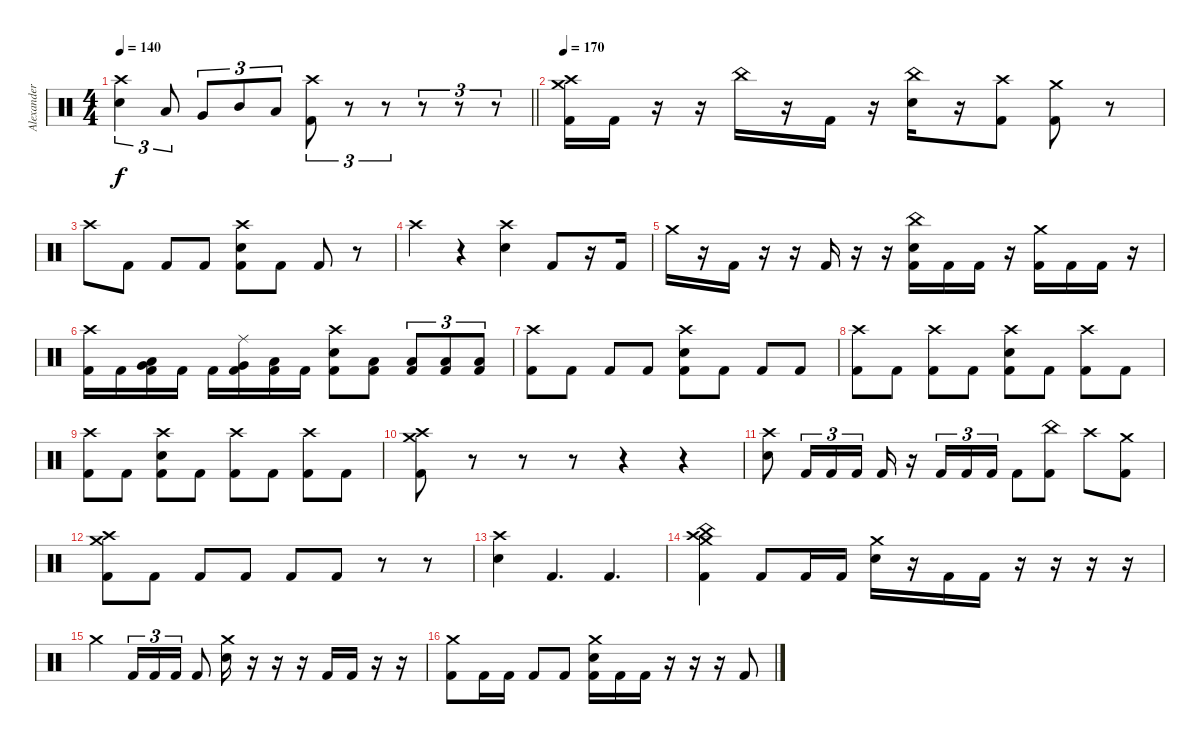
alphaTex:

\track ("Alexander Yazikov" "Alexander ") {instrument percussion}
\staff {score}
\articulation defaults
\ts (4 4)
\tempo 140
\clef neutral
\barLineRight lightlight
\ks c
("Crash high (hit)" "Electric Snare (hit)").4{tu (3 2) dy f} "Low Tom (hit)".8{tu (3 2)} "Very Low Tom (hit)".8{tu (3 2)} "Mid Tom (hit)".8{tu (3 2)} "Low Tom (hit)".8{tu (3 2)} ("Crash high (hit)" "Kick (hit) 2").8{tu (3 2)} r.8{tu (3 2)} r.8{tu (3 2)} r.8{tu (3 2)} r.8{tu (3 2)} r.8{tu (3 2)} |
\tempo 170
("Crash medium (hit)" "Crash high (hit)" "Kick (hit) 2").16 "Kick (hit) 2".16 r.16 r.16 "China (hit)".16 r.16 "Kick (hit) 2".16 r.16 ("China (hit)" "Electric Snare (hit)").16 r.16 ("Crash high (hit)" "Kick (hit) 2").8 ("Crash medium (hit)" "Kick (hit) 2").8 r.8 |
"Crash high (hit)".8 "Kick (hit) 2".8 "Kick (hit) 2".8 "Kick (hit) 2".8 ("Crash high (hit)" "Electric Snare (hit)" "Kick (hit) 2").8 "Kick (hit) 2".8 "Kick (hit) 2".8 r.8 |
"Crash high (hit)".4 r.4 ("Crash high (hit)" "Electric Snare (hit)").4 "Kick (hit) 2".8 r.16 "Kick (hit) 2".16 |
"Crash medium (hit)".16 r.16 "Kick (hit) 2".16 r.16 r.16 "Kick (hit) 2".16 r.16 r.16 ("China (hit)" "Electric Snare (hit)" "Kick (hit) 2").16 "Kick (hit) 2".16 "Kick (hit) 2".16 r.16 ("Crash medium (hit)" "Kick (hit) 2").16 "Kick (hit) 2".16 "Kick (hit) 2".16 r.16 |
("Crash high (hit)" "Kick (hit) 2").16 "Kick (hit) 2".16 ("Low Tom (hit)" "Very Low Tom (hit)" "Kick (hit) 2").16 "Kick (hit) 2".16 "Kick (hit) 2".16 ("Very Low Tom (hit)" "Ride (middle)" "Kick (hit) 2").16 ("Low Tom (hit)" "Kick (hit) 2").16 "Kick (hit) 2".16 ("Crash high (hit)" "Electric Snare (hit)" "Kick (hit) 2").8 ("Low Tom (hit)" "Kick (hit) 2").8 ("Low Floor Tom (hit)" "Kick (hit) 2").8{tu (3 2)} ("Low Floor Tom (hit)" "Kick (hit) 2").8{tu (3 2)} ("Low Floor Tom (hit)" "Kick (hit) 2").8{tu (3 2)} |
("Crash high (hit)" "Kick (hit) 2").8 "Kick (hit) 2".8 "Kick (hit) 2".8 "Kick (hit) 2".8 ("Crash high (hit)" "Electric Snare (hit)" "Kick (hit) 2").8 "Kick (hit) 2".8 "Kick (hit) 2".8 "Kick (hit) 2".8 |
("Crash high (hit)" "Kick (hit) 2").8 "Kick (hit) 2".8 ("Crash high (hit)" "Kick (hit) 2").8 "Kick (hit) 2".8 ("Crash high (hit)" "Electric Snare (hit)" "Kick (hit) 2").8 "Kick (hit) 2".8 ("Crash high (hit)" "Kick (hit) 2").8 "Kick (hit) 2".8 |
("Crash high (hit)" "Kick (hit) 2").8 "Kick (hit) 2".8 ("Crash high (hit)" "Electric Snare (hit)" "Kick (hit) 2").8 "Kick (hit) 2".8 ("Crash high (hit)" "Kick (hit) 2").8 "Kick (hit) 2".8 ("Crash high (hit)" "Kick (hit) 2").8 "Kick (hit) 2".8 |
("Crash high (hit)" "Crash medium (hit)" "Kick (hit) 2").8 r.8 r.8 r.8 r.4 r.4 |
("Crash high (hit)" "Electric Snare (hit)").8 "Kick (hit) 2".16{tu (3 2)} "Kick (hit) 2".16{tu (3 2)} "Kick (hit) 2".16{tu (3 2)} "Kick (hit) 2".16 r.16 "Kick (hit) 2".16{tu (3 2)} "Kick (hit) 2".16{tu (3 2)} "Kick (hit) 2".16{tu (3 2)} "Kick (hit) 2".8 ("China (hit)" "Kick (hit) 2").8 "Crash high (hit)".8 ("Crash medium (hit)" "Kick (hit) 2").8 |
("Crash high (hit)" "Crash medium (hit)" "Kick (hit) 2").8 "Kick (hit) 2".8 "Kick (hit) 2".8 "Kick (hit) 2".8 "Kick (hit) 2".8 "Kick (hit) 2".8 r.8 r.8 |
("Crash high (hit)" "Electric Snare (hit)").4 "Kick (hit) 2".4{d} "Kick (hit) 2".4{d} |
("Crash high (hit)" "Crash medium (hit)" "China (hit)" "Kick (hit) 2").4 "Kick (hit) 2".8 "Kick (hit) 2".16 "Kick (hit) 2".16 ("Crash medium (hit)" "Electric Snare (hit)").16 r.16 "Kick (hit) 2".16 "Kick (hit) 2".16 r.16 r.16 r.16 r.16 |
"Crash medium (hit)".4 "Kick (hit) 2".16{tu (3 2)} "Kick (hit) 2".16{tu (3 2)} "Kick (hit) 2".16{tu (3 2)} "Kick (hit) 2".8 ("Crash medium (hit)" "Electric Snare (hit)").16 r.16 r.16 r.16 "Kick (hit) 2".16 "Kick (hit) 2".16 r.16 r.16 |
("Crash medium (hit)" "Kick (hit) 2").8 "Kick (hit) 2".16 "Kick (hit) 2".16 "Kick (hit) 2".8 "Kick (hit) 2".8 ("Crash medium (hit)" "Electric Snare (hit)" "Kick (hit) 2").16 "Kick (hit) 2".16 "Kick (hit) 2".16 r.16 r.16 r.16 "Kick (hit) 2".8
